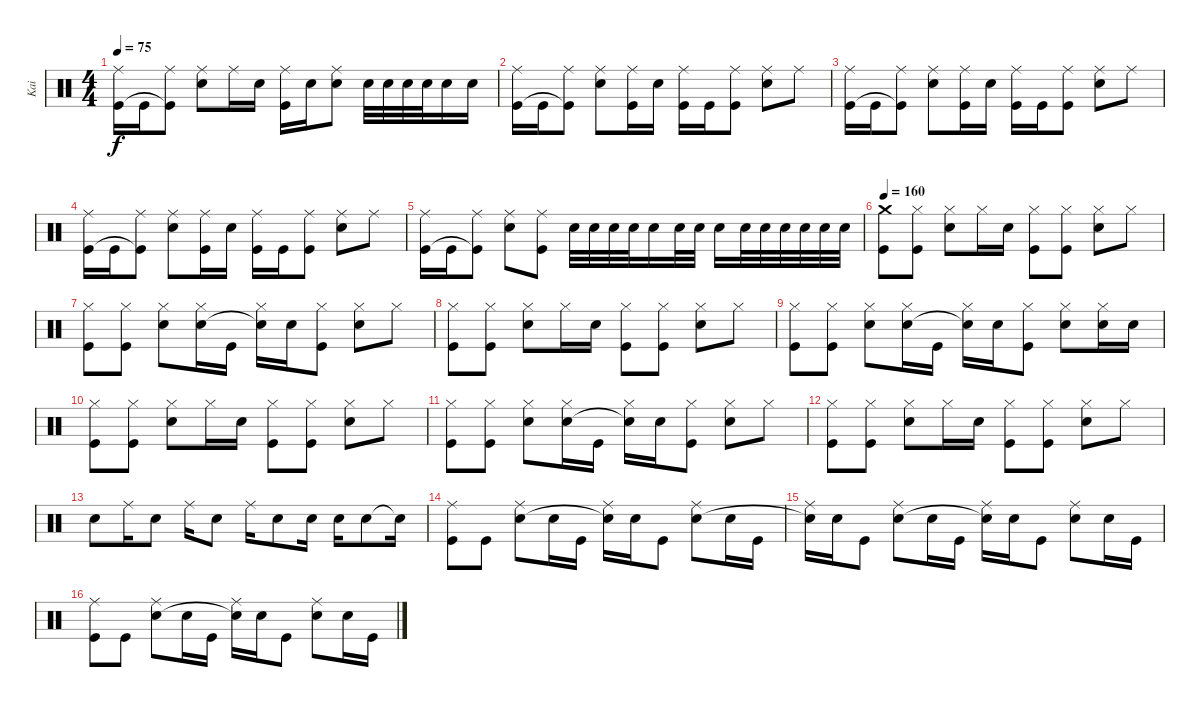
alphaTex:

\track ("Kai" "Kai") {instrument percussion}
\staff {score}
\articulation defaults
\ts (4 4)
\tempo 75
\clef neutral
\ks c
("Ride (middle)" "Kick (hit)").16{dy f} "Kick (hit)".16 ("Ride (middle)" "Kick (hit)"{t}).8 ("Ride (middle)" "Snare (hit) 2").8 "Ride (middle)".16 "Snare (hit) 2".16 ("Ride (middle)" "Kick (hit)").16 "Snare (hit) 2".16 ("Ride (middle)" "Snare (hit) 2").8 "Snare (hit) 2".32 "Snare (hit) 2".32 "Snare (hit) 2".32 "Snare (hit) 2".32 "Snare (hit) 2".16 "Snare (hit) 2".16 |
("Ride (middle)" "Kick (hit)").16 "Kick (hit)".16 ("Ride (middle)" "Kick (hit)"{t}).8 ("Ride (middle)" "Snare (hit) 2").8 ("Ride (middle)" "Kick (hit)").16 "Snare (hit) 2".16 ("Ride (middle)" "Kick (hit)").16 "Kick (hit)".16 ("Ride (middle)" "Kick (hit)").8 ("Ride (middle)" "Snare (hit) 2").8 "Ride (middle)".8 |
("Ride (middle)" "Kick (hit)").16 "Kick (hit)".16 ("Ride (middle)" "Kick (hit)"{t}).8 ("Ride (middle)" "Snare (hit) 2").8 ("Ride (middle)" "Kick (hit)").16 "Snare (hit) 2".16 ("Ride (middle)" "Kick (hit)").16 "Kick (hit)".16 ("Ride (middle)" "Kick (hit)").8 ("Ride (middle)" "Snare (hit) 2").8 "Ride (middle)".8 |
("Ride (middle)" "Kick (hit)").16 "Kick (hit)".16 ("Ride (middle)" "Kick (hit)"{t}).8 ("Ride (middle)" "Snare (hit) 2").8 ("Ride (middle)" "Kick (hit)").16 "Snare (hit) 2".16 ("Ride (middle)" "Kick (hit)").16 "Kick (hit)".16 ("Ride (middle)" "Kick (hit)").8 ("Ride (middle)" "Snare (hit) 2").8 "Ride (middle)".8 |
("Ride (middle)" "Kick (hit)").16 "Kick (hit)".16 ("Ride (middle)" "Kick (hit)"{t}).8 ("Ride (middle)" "Snare (hit) 2").8 ("Ride (middle)" "Kick (hit)").8 "Snare (hit) 2".32 "Snare (hit) 2".32 "Snare (hit) 2".32 "Snare (hit) 2".32 "Snare (hit) 2".16 "Snare (hit) 2".32 "Snare (hit) 2".32 "Snare (hit) 2".16 "Snare (hit) 2".32 "Snare (hit) 2".32 "Snare (hit) 2".32 "Snare (hit) 2".32 "Snare (hit) 2".32 "Snare (hit) 2".32 |
\tempo 160
("Crash medium (hit)" "Kick (hit)").8 ("Hi-Hat (closed)" "Kick (hit)").8 ("Hi-Hat (closed)" "Snare (hit) 2").8 "Hi-Hat (closed)".16 "Snare (hit) 2".16 ("Hi-Hat (closed)" "Kick (hit)").8 ("Hi-Hat (closed)" "Kick (hit)").8 ("Hi-Hat (closed)" "Snare (hit) 2").8 "Hi-Hat (closed)".8 |
("Hi-Hat (closed)" "Kick (hit)").8 ("Hi-Hat (closed)" "Kick (hit)").8 ("Hi-Hat (closed)" "Snare (hit) 2").8 ("Hi-Hat (closed)" "Snare (hit) 2").16 "Kick (hit)".16 ("Hi-Hat (closed)" "Snare (hit)"{t}).16 "Snare (hit) 2".16 ("Hi-Hat (closed)" "Kick (hit)").8 ("Hi-Hat (closed)" "Snare (hit) 2").8 "Hi-Hat (closed)".8 |
("Hi-Hat (closed)" "Kick (hit)").8 ("Hi-Hat (closed)" "Kick (hit)").8 ("Hi-Hat (closed)" "Snare (hit) 2").8 "Hi-Hat (closed)".16 "Snare (hit) 2".16 ("Hi-Hat (closed)" "Kick (hit)").8 ("Hi-Hat (closed)" "Kick (hit)").8 ("Hi-Hat (closed)" "Snare (hit) 2").8 "Hi-Hat (closed)".8 |
("Hi-Hat (closed)" "Kick (hit)").8 ("Hi-Hat (closed)" "Kick (hit)").8 ("Hi-Hat (closed)" "Snare (hit) 2").8 ("Hi-Hat (closed)" "Snare (hit) 2").16 "Kick (hit)".16 ("Hi-Hat (closed)" "Snare (hit)"{t}).16 "Snare (hit) 2".16 ("Hi-Hat (closed)" "Kick (hit)").8 ("Hi-Hat (closed)" "Snare (hit) 2").8 ("Hi-Hat (closed)" "Snare (hit) 2").16 "Snare (hit) 2".16 |
("Hi-Hat (closed)" "Kick (hit)").8 ("Hi-Hat (closed)" "Kick (hit)").8 ("Hi-Hat (closed)" "Snare (hit) 2").8 "Hi-Hat (closed)".16 "Snare (hit) 2".16 ("Hi-Hat (closed)" "Kick (hit)").8 ("Hi-Hat (closed)" "Kick (hit)").8 ("Hi-Hat (closed)" "Snare (hit) 2").8 "Hi-Hat (closed)".8 |
("Hi-Hat (closed)" "Kick (hit)").8 ("Hi-Hat (closed)" "Kick (hit)").8 ("Hi-Hat (closed)" "Snare (hit) 2").8 ("Hi-Hat (closed)" "Snare (hit) 2").16 "Kick (hit)".16 ("Hi-Hat (closed)" "Snare (hit)"{t}).16 "Snare (hit) 2".16 ("Hi-Hat (closed)" "Kick (hit)").8 ("Hi-Hat (closed)" "Snare (hit) 2").8 "Hi-Hat (closed)".8 |
("Hi-Hat (closed)" "Kick (hit)").8 ("Hi-Hat (closed)" "Kick (hit)").8 ("Hi-Hat (closed)" "Snare (hit) 2").8 "Hi-Hat (closed)".16 "Snare (hit) 2".16 ("Hi-Hat (closed)" "Kick (hit)").8 ("Hi-Hat (closed)" "Kick (hit)").8 ("Hi-Hat (closed)" "Snare (hit) 2").8 "Hi-Hat (closed)".8 |
"Snare (hit) 2".8 "Ride (middle)".16 "Snare (hit) 2".8 "Ride (middle)".16 "Snare (hit) 2".8 "Ride (middle)".16 "Snare (hit) 2".8 "Snare (hit) 2".16 "Snare (hit) 2".16 "Snare (hit) 2".8 "Snare (hit)"{t}.16 |
("Ride (middle)" "Kick (hit)").8 "Kick (hit)".8 ("Ride (middle)" "Snare (hit) 2").8 "Snare (hit) 2".16 "Kick (hit)".16 ("Ride (middle)" "Snare (hit)"{t}).16 "Snare (hit) 2".16 "Kick (hit)".8 ("Ride (middle)" "Snare (hit) 2").8 "Snare (hit) 2".16 "Kick (hit)".16 |
("Ride (middle)" "Snare (hit)"{t}).16 "Snare (hit) 2".16 "Kick (hit)".8 ("Ride (middle)" "Snare (hit) 2").8 "Snare (hit) 2".16 "Kick (hit)".16 ("Ride (middle)" "Snare (hit)"{t}).16 "Snare (hit) 2".16 "Kick (hit)".8 ("Ride (middle)" "Snare (hit) 2").8 "Snare (hit) 2".16 "Kick (hit)".16 |
("Ride (middle)" "Kick (hit)").8 "Kick (hit)".8 ("Ride (middle)" "Snare (hit) 2").8 "Snare (hit) 2".16 "Kick (hit)".16 ("Ride (middle)" "Snare (hit)"{t}).16 "Snare (hit) 2".16 "Kick (hit)".8 ("Ride (middle)" "Snare (hit) 2").8 "Snare (hit) 2".16 "Kick (hit)".16
